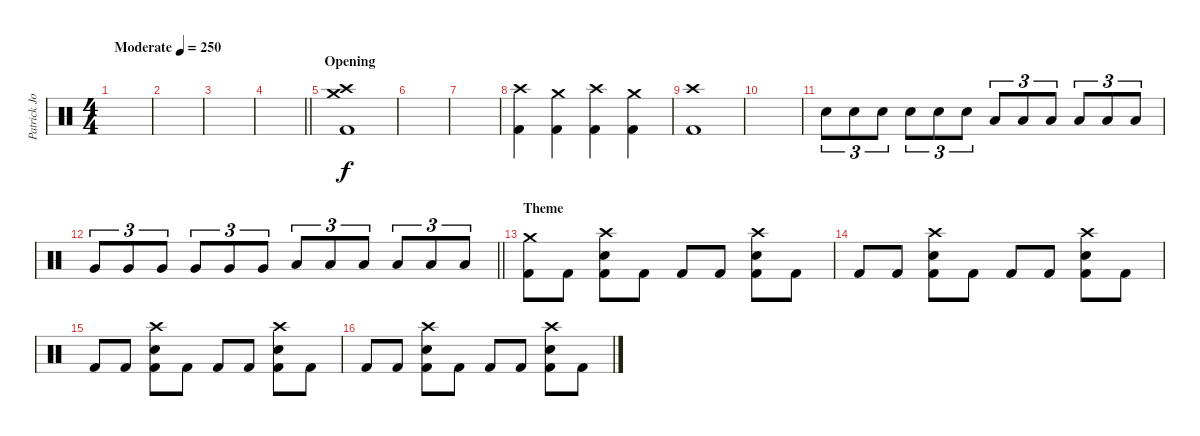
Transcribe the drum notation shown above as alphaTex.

\track ("Patrick Johansson" "Patrick Jo") {instrument percussion}
\staff {score}
\articulation defaults
\ts (4 4)
\tempo (250 "Moderate")
\clef neutral
\ks c
|
|
|
\barLineRight lightlight
|
\section ("" "Opening")
("Crash medium (hit)" "Crash high (hit)" "Kick (hit) 2").1 |
|
|
("Crash high (hit)" "Kick (hit) 2").4 ("Crash medium (hit)" "Kick (hit) 2").4 ("Crash high (hit)" "Kick (hit) 2").4 ("Crash medium (hit)" "Kick (hit) 2").4 |
("Crash high (hit)" "Kick (hit) 2").1 |
|
"Snare (hit) 2".8{tu (3 2)} "Snare (hit) 2".8{tu (3 2)} "Snare (hit) 2".8{tu (3 2)} "Snare (hit) 2".8{tu (3 2)} "Snare (hit) 2".8{tu (3 2)} "Snare (hit) 2".8{tu (3 2)} "Low Tom (hit)".8{tu (3 2)} "Low Tom (hit)".8{tu (3 2)} "Low Tom (hit)".8{tu (3 2)} "Low Tom (hit)".8{tu (3 2)} "Low Tom (hit)".8{tu (3 2)} "Low Tom (hit)".8{tu (3 2)} |
\barLineRight lightlight "Very Low Tom (hit)".8{tu (3 2)} "Very Low Tom (hit)".8{tu (3 2)} "Very Low Tom (hit)".8{tu (3 2)} "Very Low Tom (hit)".8{tu (3 2)} "Very Low Tom (hit)".8{tu (3 2)} "Very Low Tom (hit)".8{tu (3 2)} "Low Floor Tom (hit)".8{tu (3 2)} "Low Floor Tom (hit)".8{tu (3 2)} "Low Floor Tom (hit)".8{tu (3 2)} "Low Floor Tom (hit)".8{tu (3 2)} "Low Floor Tom (hit)".8{tu (3 2)} "Low Floor Tom (hit)".8{tu (3 2)}
|
\section ("" "Theme")
("Crash medium (hit)" "Kick (hit) 2").8 "Kick (hit) 2".8 ("Crash high (hit)" "Snare (hit) 2" "Kick (hit) 2").8 "Kick (hit) 2".8 "Kick (hit) 2".8 "Kick (hit) 2".8 ("Crash high (hit)" "Snare (hit) 2" "Kick (hit) 2").8 "Kick (hit) 2".8 |
"Kick (hit) 2".8 "Kick (hit) 2".8 ("Crash high (hit)" "Snare (hit) 2" "Kick (hit) 2").8 "Kick (hit) 2".8 "Kick (hit) 2".8 "Kick (hit) 2".8 ("Crash high (hit)" "Snare (hit) 2" "Kick (hit) 2").8 "Kick (hit) 2".8 |
"Kick (hit) 2".8 "Kick (hit) 2".8 ("Crash high (hit)" "Snare (hit) 2" "Kick (hit) 2").8 "Kick (hit) 2".8 "Kick (hit) 2".8 "Kick (hit) 2".8 ("Crash high (hit)" "Snare (hit) 2" "Kick (hit) 2").8 "Kick (hit) 2".8 |
"Kick (hit) 2".8 "Kick (hit) 2".8 ("Crash high (hit)" "Snare (hit) 2" "Kick (hit) 2").8 "Kick (hit) 2".8 "Kick (hit) 2".8 "Kick (hit) 2".8 ("Crash high (hit)" "Snare (hit) 2" "Kick (hit) 2").8 "Kick (hit) 2".8
